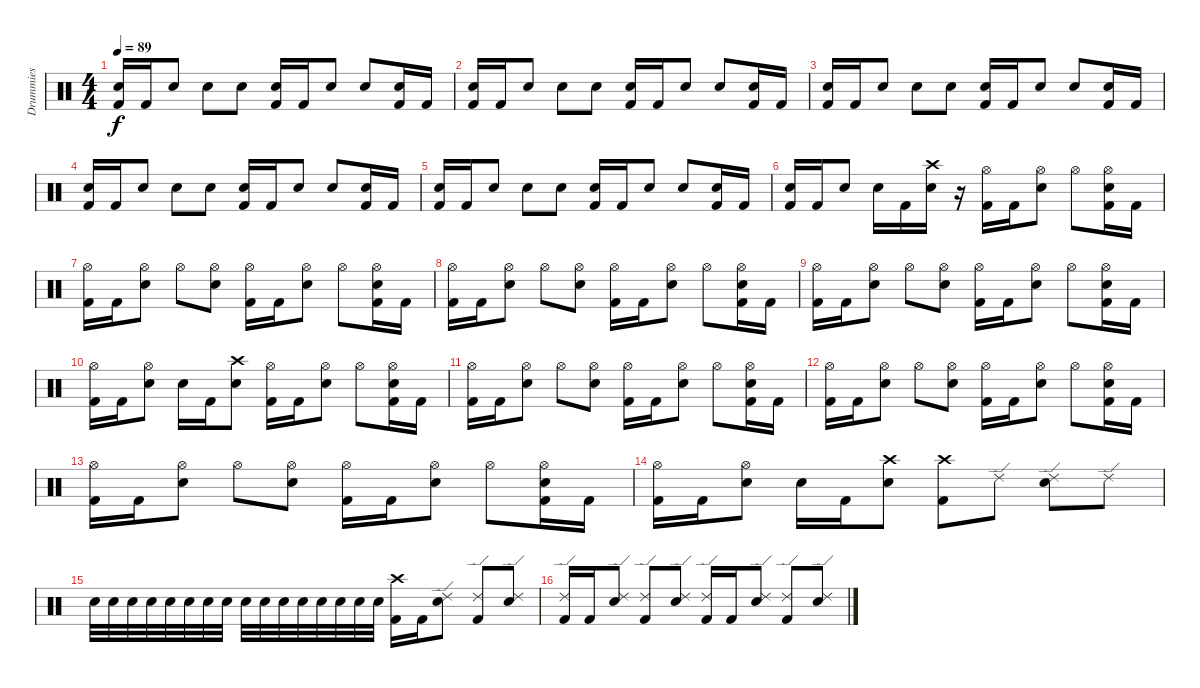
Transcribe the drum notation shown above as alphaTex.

\track ("Drummies" "Drummies") {instrument percussion}
\staff {score}
\articulation defaults
\ts (4 4)
\tempo 89
\clef neutral
\ks c
("Kick (hit) 2" "Electric Snare (hit)").16{dy f} "Kick (hit) 2".16 "Electric Snare (hit)".8 "Electric Snare (hit)".8 "Electric Snare (hit)".8 ("Kick (hit) 2" "Electric Snare (hit)").16 "Kick (hit) 2".16 "Electric Snare (hit)".8 "Electric Snare (hit)".8 ("Kick (hit) 2" "Electric Snare (hit)").16 "Kick (hit) 2".16 |
("Kick (hit) 2" "Electric Snare (hit)").16 "Kick (hit) 2".16 "Electric Snare (hit)".8 "Electric Snare (hit)".8 "Electric Snare (hit)".8 ("Kick (hit) 2" "Electric Snare (hit)").16 "Kick (hit) 2".16 "Electric Snare (hit)".8 "Electric Snare (hit)".8 ("Kick (hit) 2" "Electric Snare (hit)").16 "Kick (hit) 2".16 |
("Kick (hit) 2" "Electric Snare (hit)").16 "Kick (hit) 2".16 "Electric Snare (hit)".8 "Electric Snare (hit)".8 "Electric Snare (hit)".8 ("Kick (hit) 2" "Electric Snare (hit)").16 "Kick (hit) 2".16 "Electric Snare (hit)".8 "Electric Snare (hit)".8 ("Kick (hit) 2" "Electric Snare (hit)").16 "Kick (hit) 2".16 |
("Kick (hit) 2" "Electric Snare (hit)").16 "Kick (hit) 2".16 "Electric Snare (hit)".8 "Electric Snare (hit)".8 "Electric Snare (hit)".8 ("Kick (hit) 2" "Electric Snare (hit)").16 "Kick (hit) 2".16 "Electric Snare (hit)".8 "Electric Snare (hit)".8 ("Kick (hit) 2" "Electric Snare (hit)").16 "Kick (hit) 2".16 |
("Kick (hit) 2" "Electric Snare (hit)").16 "Kick (hit) 2".16 "Electric Snare (hit)".8 "Electric Snare (hit)".8 "Electric Snare (hit)".8 ("Kick (hit) 2" "Electric Snare (hit)").16 "Kick (hit) 2".16 "Electric Snare (hit)".8 "Electric Snare (hit)".8 ("Kick (hit) 2" "Electric Snare (hit)").16 "Kick (hit) 2".16 |
("Kick (hit) 2" "Electric Snare (hit)").16 "Kick (hit) 2".16 "Electric Snare (hit)".8 "Electric Snare (hit)".16 "Kick (hit) 2".16 ("Crash high (hit)" "Electric Snare (hit)").16 r.16 ("Hi-Hat (open)" "Kick (hit) 2").16 "Kick (hit) 2".16 ("Hi-Hat (open)" "Electric Snare (hit)").8 "Hi-Hat (open)".8 ("Hi-Hat (open)" "Kick (hit) 2" "Electric Snare (hit)").16 "Kick (hit) 2".16 |
("Kick (hit) 2" "Hi-Hat (open)").16 "Kick (hit) 2".16 ("Hi-Hat (open)" "Electric Snare (hit)").8 "Hi-Hat (open)".8 ("Hi-Hat (open)" "Electric Snare (hit)").8 ("Hi-Hat (open)" "Kick (hit) 2").16 "Kick (hit) 2".16 ("Hi-Hat (open)" "Electric Snare (hit)").8 "Hi-Hat (open)".8 ("Hi-Hat (open)" "Kick (hit) 2" "Electric Snare (hit)").16 "Kick (hit) 2".16 |
("Kick (hit) 2" "Hi-Hat (open)").16 "Kick (hit) 2".16 ("Hi-Hat (open)" "Electric Snare (hit)").8 "Hi-Hat (open)".8 ("Hi-Hat (open)" "Electric Snare (hit)").8 ("Hi-Hat (open)" "Kick (hit) 2").16 "Kick (hit) 2".16 ("Hi-Hat (open)" "Electric Snare (hit)").8 "Hi-Hat (open)".8 ("Hi-Hat (open)" "Kick (hit) 2" "Electric Snare (hit)").16 "Kick (hit) 2".16 |
("Kick (hit) 2" "Hi-Hat (open)").16 "Kick (hit) 2".16 ("Hi-Hat (open)" "Electric Snare (hit)").8 "Hi-Hat (open)".8 ("Hi-Hat (open)" "Electric Snare (hit)").8 ("Hi-Hat (open)" "Kick (hit) 2").16 "Kick (hit) 2".16 ("Hi-Hat (open)" "Electric Snare (hit)").8 "Hi-Hat (open)".8 ("Hi-Hat (open)" "Kick (hit) 2" "Electric Snare (hit)").16 "Kick (hit) 2".16 |
("Kick (hit) 2" "Hi-Hat (open)").16 "Kick (hit) 2".16 ("Hi-Hat (open)" "Electric Snare (hit)").8 "Electric Snare (hit)".16 "Kick (hit) 2".16 ("Crash high (hit)" "Electric Snare (hit)").8 ("Hi-Hat (open)" "Kick (hit) 2").16 "Kick (hit) 2".16 ("Hi-Hat (open)" "Electric Snare (hit)").8 "Hi-Hat (open)".8 ("Hi-Hat (open)" "Kick (hit) 2" "Electric Snare (hit)").16 "Kick (hit) 2".16 |
("Kick (hit) 2" "Hi-Hat (open)").16 "Kick (hit) 2".16 ("Hi-Hat (open)" "Electric Snare (hit)").8 "Hi-Hat (open)".8 ("Hi-Hat (open)" "Electric Snare (hit)").8 ("Hi-Hat (open)" "Kick (hit) 2").16 "Kick (hit) 2".16 ("Hi-Hat (open)" "Electric Snare (hit)").8 "Hi-Hat (open)".8 ("Hi-Hat (open)" "Kick (hit) 2" "Electric Snare (hit)").16 "Kick (hit) 2".16 |
("Kick (hit) 2" "Hi-Hat (open)").16 "Kick (hit) 2".16 ("Hi-Hat (open)" "Electric Snare (hit)").8 "Hi-Hat (open)".8 ("Hi-Hat (open)" "Electric Snare (hit)").8 ("Hi-Hat (open)" "Kick (hit) 2").16 "Kick (hit) 2".16 ("Hi-Hat (open)" "Electric Snare (hit)").8 "Hi-Hat (open)".8 ("Hi-Hat (open)" "Kick (hit) 2" "Electric Snare (hit)").16 "Kick (hit) 2".16 |
("Kick (hit) 2" "Hi-Hat (open)").16 "Kick (hit) 2".16 ("Hi-Hat (open)" "Electric Snare (hit)").8 "Hi-Hat (open)".8 ("Hi-Hat (open)" "Electric Snare (hit)").8 ("Hi-Hat (open)" "Kick (hit) 2").16 "Kick (hit) 2".16 ("Hi-Hat (open)" "Electric Snare (hit)").8 "Hi-Hat (open)".8 ("Hi-Hat (open)" "Kick (hit) 2" "Electric Snare (hit)").16 "Kick (hit) 2".16 |
("Hi-Hat (open)" "Kick (hit) 2").16 "Kick (hit) 2".16 ("Hi-Hat (open)" "Electric Snare (hit)").8 "Electric Snare (hit)".16 "Kick (hit) 2".16 ("Crash high (hit)" "Electric Snare (hit)").8 ("Crash high (hit)" "Kick (hit) 2").8 "Ride (edge) 2".8 ("Ride (edge) 2" "Electric Snare (hit)").8 "Ride (edge) 2".8 |
"Electric Snare (hit)".32 "Electric Snare (hit)".32 "Electric Snare (hit)".32 "Electric Snare (hit)".32 "Electric Snare (hit)".32 "Electric Snare (hit)".32 "Electric Snare (hit)".32 "Electric Snare (hit)".32 "Electric Snare (hit)".32 "Electric Snare (hit)".32 "Electric Snare (hit)".32 "Electric Snare (hit)".32 "Electric Snare (hit)".32 "Electric Snare (hit)".32 "Electric Snare (hit)".32 "Electric Snare (hit)".32 ("Crash high (hit)" "Kick (hit) 2").16 "Kick (hit) 2".16 ("Ride (edge) 2" "Electric Snare (hit)").8 ("Ride (edge) 2" "Kick (hit) 2").8 ("Ride (edge) 2" "Electric Snare (hit)").8 |
("Ride (edge) 2" "Kick (hit) 2").16 "Kick (hit) 2".16 ("Ride (edge) 2" "Electric Snare (hit)").8 ("Ride (edge) 2" "Kick (hit) 2").8 ("Ride (edge) 2" "Electric Snare (hit)").8 ("Ride (edge) 2" "Kick (hit) 2").16 "Kick (hit) 2".16 ("Ride (edge) 2" "Electric Snare (hit)").8 ("Ride (edge) 2" "Kick (hit) 2").8 ("Ride (edge) 2" "Electric Snare (hit)").8
